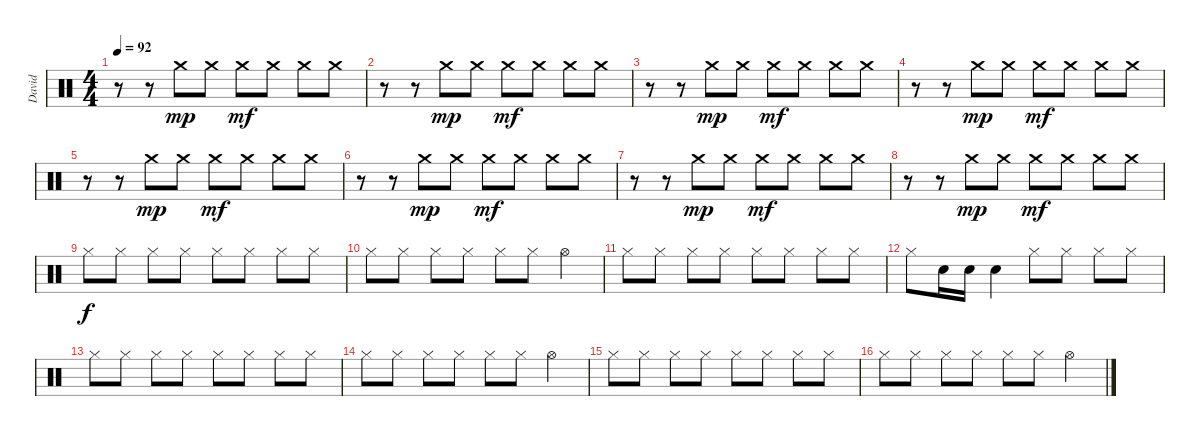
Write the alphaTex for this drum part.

\track ("David" "David") {instrument percussion}
\staff {score}
\articulation defaults
\ts (4 4)
\tempo 92
\clef neutral
\ks c
r.8{dy f} r.8 "Crash medium (hit)".8{dy mp} "Crash medium (hit)".8 "Crash medium (hit)".8{dy mf} "Crash medium (hit)".8 "Crash medium (hit)".8 "Crash medium (hit)".8 |
r.8 r.8 "Crash medium (hit)".8{dy mp} "Crash medium (hit)".8 "Crash medium (hit)".8{dy mf} "Crash medium (hit)".8 "Crash medium (hit)".8 "Crash medium (hit)".8 |
r.8 r.8 "Crash medium (hit)".8{dy mp} "Crash medium (hit)".8 "Crash medium (hit)".8{dy mf} "Crash medium (hit)".8 "Crash medium (hit)".8 "Crash medium (hit)".8 |
r.8 r.8 "Crash medium (hit)".8{dy mp} "Crash medium (hit)".8 "Crash medium (hit)".8{dy mf} "Crash medium (hit)".8 "Crash medium (hit)".8 "Crash medium (hit)".8 |
r.8 r.8 "Crash medium (hit)".8{dy mp} "Crash medium (hit)".8 "Crash medium (hit)".8{dy mf} "Crash medium (hit)".8 "Crash medium (hit)".8 "Crash medium (hit)".8 |
r.8 r.8 "Crash medium (hit)".8{dy mp} "Crash medium (hit)".8 "Crash medium (hit)".8{dy mf} "Crash medium (hit)".8 "Crash medium (hit)".8 "Crash medium (hit)".8 |
r.8 r.8 "Crash medium (hit)".8{dy mp} "Crash medium (hit)".8 "Crash medium (hit)".8{dy mf} "Crash medium (hit)".8 "Crash medium (hit)".8 "Crash medium (hit)".8 |
r.8 r.8 "Crash medium (hit)".8{dy mp} "Crash medium (hit)".8 "Crash medium (hit)".8{dy mf} "Crash medium (hit)".8 "Crash medium (hit)".8 "Crash medium (hit)".8 |
"Hi-Hat (closed)".8{dy f} "Hi-Hat (closed)".8 "Hi-Hat (closed)".8 "Hi-Hat (closed)".8 "Hi-Hat (closed)".8 "Hi-Hat (closed)".8 "Hi-Hat (closed)".8 "Hi-Hat (closed)".8 |
"Hi-Hat (closed)".8 "Hi-Hat (closed)".8 "Hi-Hat (closed)".8 "Hi-Hat (closed)".8 "Hi-Hat (closed)".8 "Hi-Hat (closed)".8 "Hi-Hat (open)".4 |
"Hi-Hat (closed)".8 "Hi-Hat (closed)".8 "Hi-Hat (closed)".8 "Hi-Hat (closed)".8 "Hi-Hat (closed)".8 "Hi-Hat (closed)".8 "Hi-Hat (closed)".8 "Hi-Hat (closed)".8 |
"Hi-Hat (closed)".8 "Snare (hit) 2".16 "Snare (hit) 2".16 "Snare (hit) 2".4 "Hi-Hat (closed)".8 "Hi-Hat (closed)".8 "Hi-Hat (closed)".8 "Hi-Hat (closed)".8 |
"Hi-Hat (closed)".8 "Hi-Hat (closed)".8 "Hi-Hat (closed)".8 "Hi-Hat (closed)".8 "Hi-Hat (closed)".8 "Hi-Hat (closed)".8 "Hi-Hat (closed)".8 "Hi-Hat (closed)".8 |
"Hi-Hat (closed)".8 "Hi-Hat (closed)".8 "Hi-Hat (closed)".8 "Hi-Hat (closed)".8 "Hi-Hat (closed)".8 "Hi-Hat (closed)".8 "Hi-Hat (open)".4 |
"Hi-Hat (closed)".8 "Hi-Hat (closed)".8 "Hi-Hat (closed)".8 "Hi-Hat (closed)".8 "Hi-Hat (closed)".8 "Hi-Hat (closed)".8 "Hi-Hat (closed)".8 "Hi-Hat (closed)".8 |
"Hi-Hat (closed)".8 "Hi-Hat (closed)".8 "Hi-Hat (closed)".8 "Hi-Hat (closed)".8 "Hi-Hat (closed)".8 "Hi-Hat (closed)".8 "Hi-Hat (open)".4
